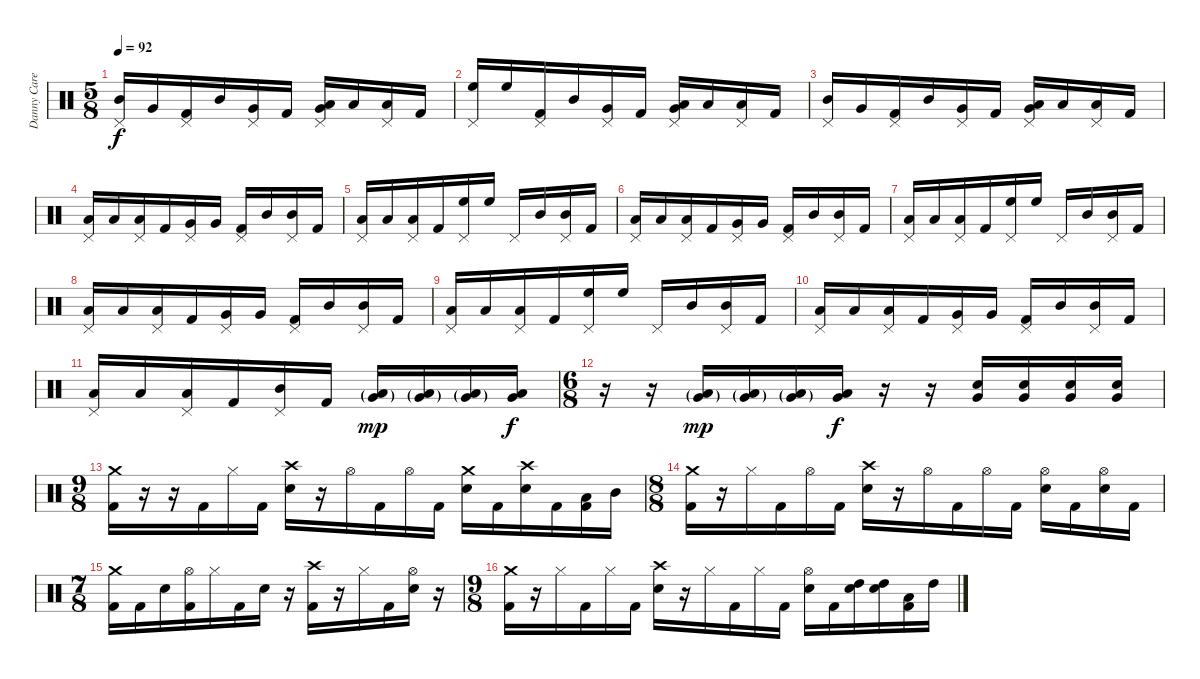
\track ("Danny Carey" "Danny Care") {instrument percussion}
\staff {score}
\articulation defaults
\ts (5 8)
\tempo 92
\clef neutral
\ks c
("Pedal Hi-Hat (hit)" "Mid Tom (hit)").16{dy f} "Very Low Tom (hit)".16 ("Pedal Hi-Hat (hit)" "Kick (hit) 2").16 "Mid Tom (hit)".16 ("Pedal Hi-Hat (hit)" "Very Low Tom (hit)").16 "Kick (hit) 2".16 ("Pedal Hi-Hat (hit)" "Low Floor Tom (hit)" "Very Low Tom (hit)").16 "Low Floor Tom (hit)".16 ("Pedal Hi-Hat (hit)" "Low Floor Tom (hit)").16 "Kick (hit) 2".16 |
("Pedal Hi-Hat (hit)" "High Floor Tom (hit)").16 "High Floor Tom (hit)".16 ("Pedal Hi-Hat (hit)" "Kick (hit) 2").16 "Mid Tom (hit)".16 ("Pedal Hi-Hat (hit)" "Very Low Tom (hit)").16 "Kick (hit) 2".16 ("Pedal Hi-Hat (hit)" "Low Floor Tom (hit)" "Very Low Tom (hit)").16 "Low Floor Tom (hit)".16 ("Pedal Hi-Hat (hit)" "Low Floor Tom (hit)").16 "Kick (hit) 2".16 |
("Pedal Hi-Hat (hit)" "Mid Tom (hit)").16 "Very Low Tom (hit)".16 ("Pedal Hi-Hat (hit)" "Kick (hit) 2").16 "Mid Tom (hit)".16 ("Pedal Hi-Hat (hit)" "Very Low Tom (hit)").16 "Kick (hit) 2".16 ("Pedal Hi-Hat (hit)" "Low Floor Tom (hit)" "Very Low Tom (hit)").16 "Low Floor Tom (hit)".16 ("Pedal Hi-Hat (hit)" "Low Floor Tom (hit)").16 "Kick (hit) 2".16 |
("Pedal Hi-Hat (hit)" "Low Floor Tom (hit)").16 "Low Floor Tom (hit)".16 ("Pedal Hi-Hat (hit)" "Low Floor Tom (hit)").16 "Kick (hit) 2".16 ("Pedal Hi-Hat (hit)" "Very Low Tom (hit)").16 "Very Low Tom (hit)".16 ("Pedal Hi-Hat (hit)" "Kick (hit) 2").16 "Mid Tom (hit)".16 ("Pedal Hi-Hat (hit)" "Mid Tom (hit)").16 "Kick (hit) 2".16 |
("Pedal Hi-Hat (hit)" "Low Floor Tom (hit)").16 "Low Floor Tom (hit)".16 ("Pedal Hi-Hat (hit)" "Low Floor Tom (hit)").16 "Kick (hit) 2".16 ("Pedal Hi-Hat (hit)" "High Floor Tom (hit)").16 "High Floor Tom (hit)".16 "Pedal Hi-Hat (hit)".16 "Mid Tom (hit)".16 ("Pedal Hi-Hat (hit)" "Mid Tom (hit)").16 "Kick (hit) 2".16 |
("Pedal Hi-Hat (hit)" "Low Floor Tom (hit)").16 "Low Floor Tom (hit)".16 ("Pedal Hi-Hat (hit)" "Low Floor Tom (hit)").16 "Kick (hit) 2".16 ("Pedal Hi-Hat (hit)" "Very Low Tom (hit)").16 "Very Low Tom (hit)".16 ("Pedal Hi-Hat (hit)" "Kick (hit) 2").16 "Mid Tom (hit)".16 ("Pedal Hi-Hat (hit)" "Mid Tom (hit)").16 "Kick (hit) 2".16 |
("Pedal Hi-Hat (hit)" "Low Floor Tom (hit)").16 "Low Floor Tom (hit)".16 ("Pedal Hi-Hat (hit)" "Low Floor Tom (hit)").16 "Kick (hit) 2".16 ("Pedal Hi-Hat (hit)" "High Floor Tom (hit)").16 "High Floor Tom (hit)".16 "Pedal Hi-Hat (hit)".16 "Mid Tom (hit)".16 ("Pedal Hi-Hat (hit)" "Mid Tom (hit)").16 "Kick (hit) 2".16 |
("Pedal Hi-Hat (hit)" "Low Floor Tom (hit)").16 "Low Floor Tom (hit)".16 ("Pedal Hi-Hat (hit)" "Low Floor Tom (hit)").16 "Kick (hit) 2".16 ("Pedal Hi-Hat (hit)" "Very Low Tom (hit)").16 "Very Low Tom (hit)".16 ("Pedal Hi-Hat (hit)" "Kick (hit) 2").16 "Mid Tom (hit)".16 ("Pedal Hi-Hat (hit)" "Mid Tom (hit)").16 "Kick (hit) 2".16 |
("Pedal Hi-Hat (hit)" "Low Floor Tom (hit)").16 "Low Floor Tom (hit)".16 ("Pedal Hi-Hat (hit)" "Low Floor Tom (hit)").16 "Kick (hit) 2".16 ("Pedal Hi-Hat (hit)" "High Floor Tom (hit)").16 "High Floor Tom (hit)".16 "Pedal Hi-Hat (hit)".16 "Mid Tom (hit)".16 ("Pedal Hi-Hat (hit)" "Mid Tom (hit)").16 "Kick (hit) 2".16 |
("Pedal Hi-Hat (hit)" "Low Floor Tom (hit)").16 "Low Floor Tom (hit)".16 ("Pedal Hi-Hat (hit)" "Low Floor Tom (hit)").16 "Kick (hit) 2".16 ("Pedal Hi-Hat (hit)" "Very Low Tom (hit)").16 "Very Low Tom (hit)".16 ("Pedal Hi-Hat (hit)" "Kick (hit) 2").16 "Mid Tom (hit)".16 ("Pedal Hi-Hat (hit)" "Mid Tom (hit)").16 "Kick (hit) 2".16 |
("Pedal Hi-Hat (hit)" "Low Floor Tom (hit)").16 "Low Floor Tom (hit)".16 ("Pedal Hi-Hat (hit)" "Low Floor Tom (hit)").16 "Kick (hit) 2".16 ("Pedal Hi-Hat (hit)" "Mid Tom (hit)").16 "Kick (hit) 2".16 ("Low Floor Tom (hit)"{g} "Very Low Tom (hit)"{g}).16{dy mp} ("Low Floor Tom (hit)"{g} "Very Low Tom (hit)"{g}).16 ("Low Floor Tom (hit)"{g} "Very Low Tom (hit)"{g}).16 ("Low Floor Tom (hit)" "Very Low Tom (hit)").16{dy f} |
\ts (6 8)
r.16 r.16 ("Low Floor Tom (hit)"{g} "Very Low Tom (hit)"{g}).16{dy mp} ("Low Floor Tom (hit)"{g} "Very Low Tom (hit)"{g}).16 ("Low Floor Tom (hit)"{g} "Very Low Tom (hit)"{g}).16 ("Low Floor Tom (hit)" "Very Low Tom (hit)").16{dy f} r.16 r.16 ("Very Low Tom (hit)" "Electric Snare (hit)").16 ("Very Low Tom (hit)" "Electric Snare (hit)").16 ("Very Low Tom (hit)" "Electric Snare (hit)").16 ("Very Low Tom (hit)" "Electric Snare (hit)").16 |
\ts (9 8)
("Crash medium (hit)" "Kick (hit) 2").16 r.16 r.16 "Kick (hit) 2".16 "Hi-Hat (closed)".16 "Kick (hit) 2".16 ("Crash high (hit)" "Electric Snare (hit)").16 r.16 "Hi-Hat (open)".16 "Kick (hit) 2".16 "Hi-Hat (open)".16 "Kick (hit) 2".16 ("Crash medium (hit)" "Electric Snare (hit)").16 "Kick (hit) 2".16 ("Crash high (hit)" "Electric Snare (hit)").16 "Kick (hit) 2".16 ("Low Tom (hit)" "Kick (hit) 2").16 "Mid Tom (hit)".16 |
\ts (8 8)
("Crash medium (hit)" "Kick (hit) 2").16 r.16 "Hi-Hat (closed)".16 "Kick (hit) 2".16 "Hi-Hat (open)".16 "Kick (hit) 2".16 ("Crash high (hit)" "Electric Snare (hit)").16 r.16 "Hi-Hat (open)".16 "Kick (hit) 2".16 "Hi-Hat (open)".16 "Kick (hit) 2".16 ("Hi-Hat (open)" "Electric Snare (hit)").16 "Kick (hit) 2".16 ("Hi-Hat (open)" "Electric Snare (hit)").16 "Kick (hit) 2".16 |
\ts (7 8)
("Crash medium (hit)" "Kick (hit) 2").16 "Kick (hit) 2".16 "Electric Snare (hit)".16 ("Hi-Hat (open)" "Kick (hit) 2").16 "Hi-Hat (closed)".16 "Kick (hit) 2".16 "Electric Snare (hit)".16 r.16 ("Crash high (hit)" "Kick (hit) 2").16 r.16 "Hi-Hat (closed)".16 "Kick (hit) 2".16 ("Hi-Hat (open)" "Electric Snare (hit)").16 r.16 |
\ts (9 8)
("Crash medium (hit)" "Kick (hit) 2").16 r.16 "Hi-Hat (closed)".16 "Kick (hit) 2".16 "Hi-Hat (closed)".16 "Kick (hit) 2".16 ("Crash high (hit)" "Electric Snare (hit)").16 r.16 "Hi-Hat (closed)".16 "Kick (hit) 2".16 "Hi-Hat (closed)".16 "Kick (hit) 2".16 ("Hi-Hat (open)" "Electric Snare (hit)").16 "Kick (hit) 2".16 ("High Tom (hit)" "Electric Snare (hit)").16 ("High Tom (hit)" "Electric Snare (hit)").16 ("Low Tom (hit)" "Kick (hit) 2").16 "High Tom (hit)".16
